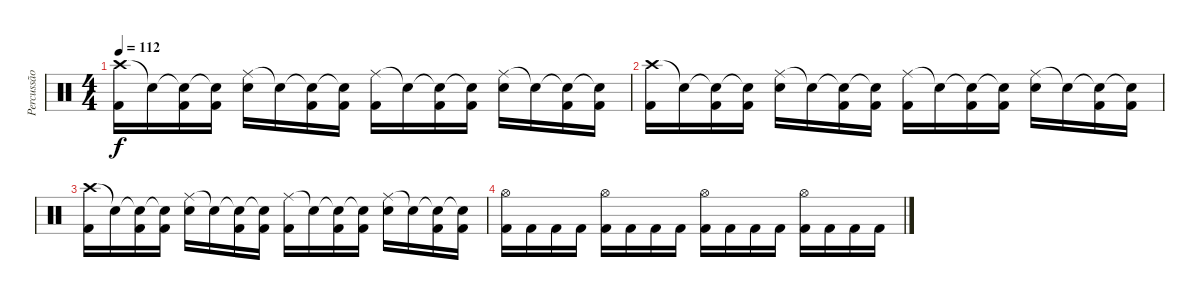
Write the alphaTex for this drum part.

\track ("Percussão" "Percussão") {instrument percussion}
\staff {score}
\articulation defaults
\ts (4 4)
\tempo 112
\clef neutral
\ks c
("Crash high (hit)" "Kick (hit) 2").16{dy f} "Snare (hit)"{t}.16 ("Snare (hit)"{t} "Kick (hit) 2").16 ("Snare (hit)"{t} "Kick (hit) 2").16 ("Ride (middle)" "Electric Snare (hit)").16 "Snare (hit)"{t}.16 ("Snare (hit)"{t} "Kick (hit) 2").16 ("Snare (hit)"{t} "Kick (hit) 2").16 ("Ride (middle)" "Kick (hit) 2").16 "Snare (hit)"{t}.16 ("Snare (hit)"{t} "Kick (hit) 2").16 ("Snare (hit)"{t} "Kick (hit) 2").16 ("Ride (middle)" "Electric Snare (hit)").16 "Snare (hit)"{t}.16 ("Snare (hit)"{t} "Kick (hit) 2").16 ("Snare (hit)"{t} "Kick (hit) 2").16 |
("Crash high (hit)" "Kick (hit) 2").16 "Snare (hit)"{t}.16 ("Snare (hit)"{t} "Kick (hit) 2").16 ("Snare (hit)"{t} "Kick (hit) 2").16 ("Ride (middle)" "Electric Snare (hit)").16 "Snare (hit)"{t}.16 ("Snare (hit)"{t} "Kick (hit) 2").16 ("Snare (hit)"{t} "Kick (hit) 2").16 ("Ride (middle)" "Kick (hit) 2").16 "Snare (hit)"{t}.16 ("Snare (hit)"{t} "Kick (hit) 2").16 ("Snare (hit)"{t} "Kick (hit) 2").16 ("Ride (middle)" "Electric Snare (hit)").16 "Snare (hit)"{t}.16 ("Snare (hit)"{t} "Kick (hit) 2").16 ("Snare (hit)"{t} "Kick (hit) 2").16 |
("Crash high (hit)" "Kick (hit) 2").16 "Snare (hit)"{t}.16 ("Snare (hit)"{t} "Kick (hit) 2").16 ("Snare (hit)"{t} "Kick (hit) 2").16 ("Ride (middle)" "Electric Snare (hit)").16 "Snare (hit)"{t}.16 ("Snare (hit)"{t} "Kick (hit) 2").16 ("Snare (hit)"{t} "Kick (hit) 2").16 ("Ride (middle)" "Kick (hit) 2").16 "Snare (hit)"{t}.16 ("Snare (hit)"{t} "Kick (hit) 2").16 ("Snare (hit)"{t} "Kick (hit) 2").16 ("Ride (middle)" "Electric Snare (hit)").16 "Snare (hit)"{t}.16 ("Snare (hit)"{t} "Kick (hit) 2").16 ("Snare (hit)"{t} "Kick (hit) 2").16 |
("Hi-Hat (open)" "Kick (hit) 2").16 "Kick (hit) 2".16 "Kick (hit) 2".16 "Kick (hit) 2".16 ("Hi-Hat (open)" "Kick (hit) 2").16 "Kick (hit) 2".16 "Kick (hit) 2".16 "Kick (hit) 2".16 ("Hi-Hat (open)" "Kick (hit) 2").16 "Kick (hit) 2".16 "Kick (hit) 2".16 "Kick (hit) 2".16 ("Hi-Hat (open)" "Kick (hit) 2").16 "Kick (hit) 2".16 "Kick (hit) 2".16 "Kick (hit) 2".16
